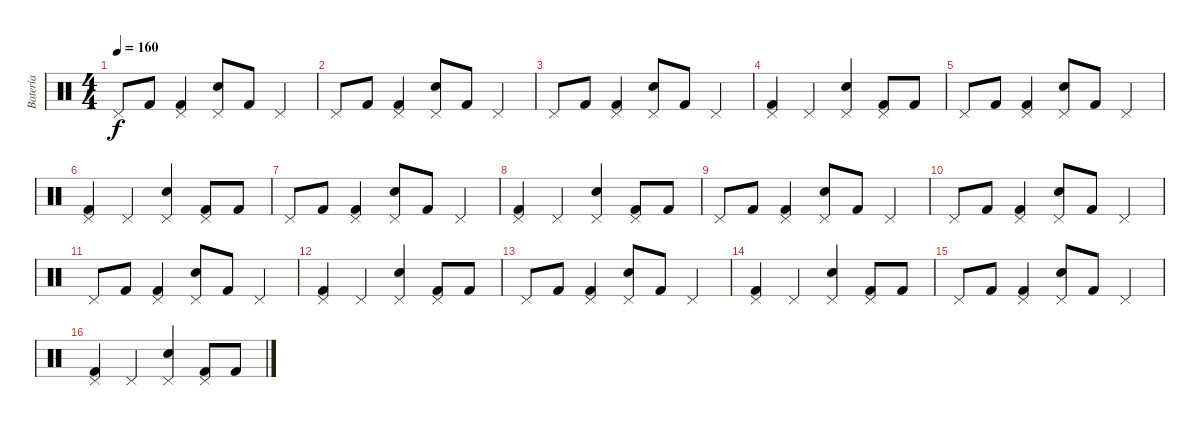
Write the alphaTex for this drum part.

\track ("Batería" "Batería") {instrument percussion}
\staff {score}
\articulation defaults
\ts (4 4)
\tempo 160
\clef neutral
\ks c "Pedal Hi-Hat (hit)".8{dy f} "Kick (hit) 2".8
("Kick (hit) 2" "Pedal Hi-Hat (hit)").4 ("Electric Snare (hit)" "Pedal Hi-Hat (hit)").8 "Kick (hit) 2".8 "Pedal Hi-Hat (hit)".4 |
"Pedal Hi-Hat (hit)".8 "Kick (hit) 2".8 ("Kick (hit) 2" "Pedal Hi-Hat (hit)").4 ("Electric Snare (hit)" "Pedal Hi-Hat (hit)").8 "Kick (hit) 2".8 "Pedal Hi-Hat (hit)".4 |
"Pedal Hi-Hat (hit)".8 "Kick (hit) 2".8 ("Kick (hit) 2" "Pedal Hi-Hat (hit)").4 ("Electric Snare (hit)" "Pedal Hi-Hat (hit)").8 "Kick (hit) 2".8 "Pedal Hi-Hat (hit)".4 |
("Kick (hit) 2" "Pedal Hi-Hat (hit)").4 "Pedal Hi-Hat (hit)".4 ("Electric Snare (hit)" "Pedal Hi-Hat (hit)").4 ("Kick (hit) 2" "Pedal Hi-Hat (hit)").8 "Kick (hit) 2".8 |
"Pedal Hi-Hat (hit)".8 "Kick (hit) 2".8 ("Kick (hit) 2" "Pedal Hi-Hat (hit)").4 ("Electric Snare (hit)" "Pedal Hi-Hat (hit)").8 "Kick (hit) 2".8 "Pedal Hi-Hat (hit)".4 |
("Kick (hit) 2" "Pedal Hi-Hat (hit)").4 "Pedal Hi-Hat (hit)".4 ("Electric Snare (hit)" "Pedal Hi-Hat (hit)").4 ("Kick (hit) 2" "Pedal Hi-Hat (hit)").8 "Kick (hit) 2".8 |
"Pedal Hi-Hat (hit)".8 "Kick (hit) 2".8 ("Kick (hit) 2" "Pedal Hi-Hat (hit)").4 ("Electric Snare (hit)" "Pedal Hi-Hat (hit)").8 "Kick (hit) 2".8 "Pedal Hi-Hat (hit)".4 |
("Kick (hit) 2" "Pedal Hi-Hat (hit)").4 "Pedal Hi-Hat (hit)".4 ("Electric Snare (hit)" "Pedal Hi-Hat (hit)").4 ("Kick (hit) 2" "Pedal Hi-Hat (hit)").8 "Kick (hit) 2".8 |
"Pedal Hi-Hat (hit)".8 "Kick (hit) 2".8 ("Kick (hit) 2" "Pedal Hi-Hat (hit)").4 ("Electric Snare (hit)" "Pedal Hi-Hat (hit)").8 "Kick (hit) 2".8 "Pedal Hi-Hat (hit)".4 |
"Pedal Hi-Hat (hit)".8 "Kick (hit) 2".8 ("Kick (hit) 2" "Pedal Hi-Hat (hit)").4 ("Electric Snare (hit)" "Pedal Hi-Hat (hit)").8 "Kick (hit) 2".8 "Pedal Hi-Hat (hit)".4 |
"Pedal Hi-Hat (hit)".8 "Kick (hit) 2".8 ("Kick (hit) 2" "Pedal Hi-Hat (hit)").4 ("Electric Snare (hit)" "Pedal Hi-Hat (hit)").8 "Kick (hit) 2".8 "Pedal Hi-Hat (hit)".4 |
("Kick (hit) 2" "Pedal Hi-Hat (hit)").4 "Pedal Hi-Hat (hit)".4 ("Electric Snare (hit)" "Pedal Hi-Hat (hit)").4 ("Kick (hit) 2" "Pedal Hi-Hat (hit)").8 "Kick (hit) 2".8 |
"Pedal Hi-Hat (hit)".8 "Kick (hit) 2".8 ("Kick (hit) 2" "Pedal Hi-Hat (hit)").4 ("Electric Snare (hit)" "Pedal Hi-Hat (hit)").8 "Kick (hit) 2".8 "Pedal Hi-Hat (hit)".4 |
("Kick (hit) 2" "Pedal Hi-Hat (hit)").4 "Pedal Hi-Hat (hit)".4 ("Electric Snare (hit)" "Pedal Hi-Hat (hit)").4 ("Kick (hit) 2" "Pedal Hi-Hat (hit)").8 "Kick (hit) 2".8 |
"Pedal Hi-Hat (hit)".8 "Kick (hit) 2".8 ("Kick (hit) 2" "Pedal Hi-Hat (hit)").4 ("Electric Snare (hit)" "Pedal Hi-Hat (hit)").8 "Kick (hit) 2".8 "Pedal Hi-Hat (hit)".4 |
("Kick (hit) 2" "Pedal Hi-Hat (hit)").4 "Pedal Hi-Hat (hit)".4 ("Electric Snare (hit)" "Pedal Hi-Hat (hit)").4 ("Kick (hit) 2" "Pedal Hi-Hat (hit)").8 "Kick (hit) 2".8
